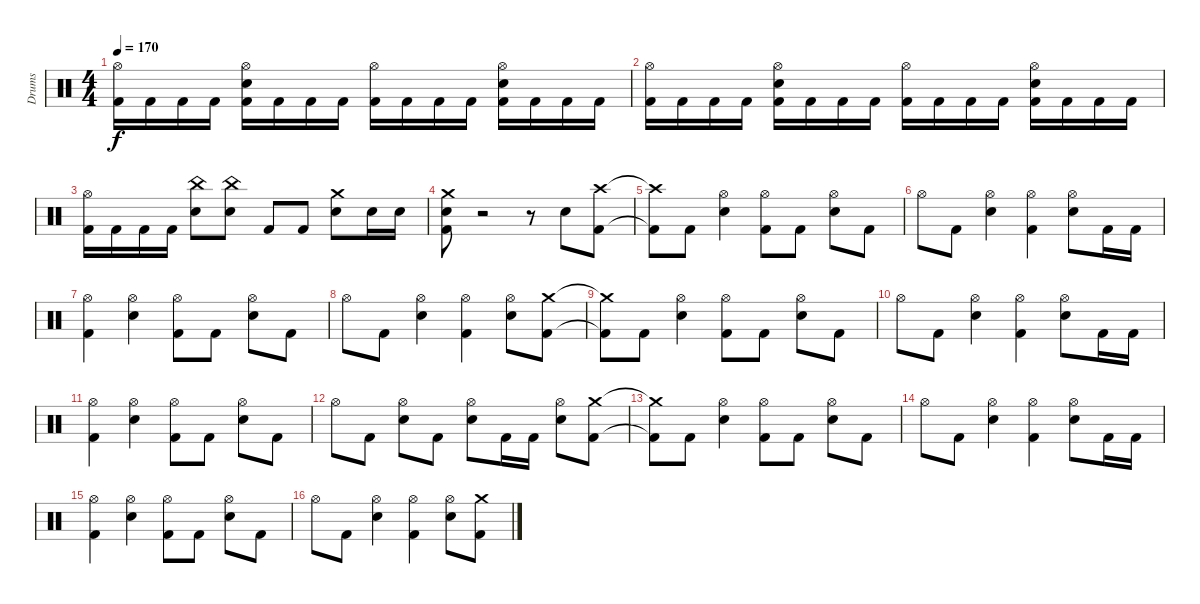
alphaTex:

\track ("Drums" "Drums") {instrument percussion}
\staff {score}
\articulation defaults
\ts (4 4)
\tempo 170
\clef neutral
\ks c
("Hi-Hat (open)" "Kick (hit) 2").16{dy f} "Kick (hit) 2".16 "Kick (hit) 2".16 "Kick (hit) 2".16 ("Hi-Hat (open)" "Electric Snare (hit)" "Kick (hit) 2").16 "Kick (hit) 2".16 "Kick (hit) 2".16 "Kick (hit) 2".16 ("Hi-Hat (open)" "Kick (hit) 2").16 "Kick (hit) 2".16 "Kick (hit) 2".16 "Kick (hit) 2".16 ("Hi-Hat (open)" "Electric Snare (hit)" "Kick (hit) 2").16 "Kick (hit) 2".16 "Kick (hit) 2".16 "Kick (hit) 2".16 |
("Hi-Hat (open)" "Kick (hit) 2").16 "Kick (hit) 2".16 "Kick (hit) 2".16 "Kick (hit) 2".16 ("Hi-Hat (open)" "Electric Snare (hit)" "Kick (hit) 2").16 "Kick (hit) 2".16 "Kick (hit) 2".16 "Kick (hit) 2".16 ("Hi-Hat (open)" "Kick (hit) 2").16 "Kick (hit) 2".16 "Kick (hit) 2".16 "Kick (hit) 2".16 ("Hi-Hat (open)" "Electric Snare (hit)" "Kick (hit) 2").16 "Kick (hit) 2".16 "Kick (hit) 2".16 "Kick (hit) 2".16 |
("Hi-Hat (open)" "Kick (hit) 2").16 "Kick (hit) 2".16 "Kick (hit) 2".16 "Kick (hit) 2".16 ("China (hit)" "Electric Snare (hit)").8 ("China (hit)" "Electric Snare (hit)").8 "Kick (hit) 2".8 "Kick (hit) 2".8 ("Crash medium (hit)" "Electric Snare (hit)").8 "Electric Snare (hit)".16 "Electric Snare (hit)".16 |
("Crash medium (hit)" "Electric Snare (hit)" "Kick (hit) 2").8 r.2 r.8 "Electric Snare (hit)".8 ("Crash high (hit)" "Kick (hit) 2").8 |
("Crash high (hit)"{t} "Kick (hit) 2"{t}).8 "Kick (hit) 2".8 ("Hi-Hat (open)" "Electric Snare (hit)").4 ("Hi-Hat (open)" "Kick (hit) 2").8 "Kick (hit) 2".8 ("Hi-Hat (open)" "Electric Snare (hit)").8 "Kick (hit) 2".8 |
"Hi-Hat (open)".8 "Kick (hit) 2".8 ("Hi-Hat (open)" "Electric Snare (hit)").4 ("Hi-Hat (open)" "Kick (hit) 2").4 ("Hi-Hat (open)" "Electric Snare (hit)").8 "Kick (hit) 2".16 "Kick (hit) 2".16 |
("Hi-Hat (open)" "Kick (hit) 2").4 ("Hi-Hat (open)" "Electric Snare (hit)").4 ("Hi-Hat (open)" "Kick (hit) 2").8 "Kick (hit) 2".8 ("Hi-Hat (open)" "Electric Snare (hit)").8 "Kick (hit) 2".8 |
"Hi-Hat (open)".8 "Kick (hit) 2".8 ("Hi-Hat (open)" "Electric Snare (hit)").4 ("Hi-Hat (open)" "Kick (hit) 2").4 ("Hi-Hat (open)" "Electric Snare (hit)").8 ("Crash medium (hit)" "Kick (hit) 2").8 |
("Crash medium (hit)"{t} "Kick (hit) 2"{t}).8 "Kick (hit) 2".8 ("Hi-Hat (open)" "Electric Snare (hit)").4 ("Hi-Hat (open)" "Kick (hit) 2").8 "Kick (hit) 2".8 ("Hi-Hat (open)" "Electric Snare (hit)").8 "Kick (hit) 2".8 |
"Hi-Hat (open)".8 "Kick (hit) 2".8 ("Hi-Hat (open)" "Electric Snare (hit)").4 ("Hi-Hat (open)" "Kick (hit) 2").4 ("Hi-Hat (open)" "Electric Snare (hit)").8 "Kick (hit) 2".16 "Kick (hit) 2".16 |
("Hi-Hat (open)" "Kick (hit) 2").4 ("Hi-Hat (open)" "Electric Snare (hit)").4 ("Hi-Hat (open)" "Kick (hit) 2").8 "Kick (hit) 2".8 ("Hi-Hat (open)" "Electric Snare (hit)").8 "Kick (hit) 2".8 |
"Hi-Hat (open)".8 "Kick (hit) 2".8 ("Hi-Hat (open)" "Electric Snare (hit)").8 "Kick (hit) 2".8 ("Hi-Hat (open)" "Electric Snare (hit)").8 "Kick (hit) 2".16 "Kick (hit) 2".16 ("Hi-Hat (open)" "Electric Snare (hit)").8 ("Crash medium (hit)" "Kick (hit) 2").8 |
("Crash medium (hit)"{t} "Kick (hit) 2"{t}).8 "Kick (hit) 2".8 ("Hi-Hat (open)" "Electric Snare (hit)").4 ("Hi-Hat (open)" "Kick (hit) 2").8 "Kick (hit) 2".8 ("Hi-Hat (open)" "Electric Snare (hit)").8 "Kick (hit) 2".8 |
"Hi-Hat (open)".8 "Kick (hit) 2".8 ("Hi-Hat (open)" "Electric Snare (hit)").4 ("Hi-Hat (open)" "Kick (hit) 2").4 ("Hi-Hat (open)" "Electric Snare (hit)").8 "Kick (hit) 2".16 "Kick (hit) 2".16 |
("Hi-Hat (open)" "Kick (hit) 2").4 ("Hi-Hat (open)" "Electric Snare (hit)").4 ("Hi-Hat (open)" "Kick (hit) 2").8 "Kick (hit) 2".8 ("Hi-Hat (open)" "Electric Snare (hit)").8 "Kick (hit) 2".8 |
"Hi-Hat (open)".8 "Kick (hit) 2".8 ("Hi-Hat (open)" "Electric Snare (hit)").4 ("Hi-Hat (open)" "Kick (hit) 2").4 ("Hi-Hat (open)" "Electric Snare (hit)").8 ("Crash medium (hit)" "Kick (hit) 2").8
